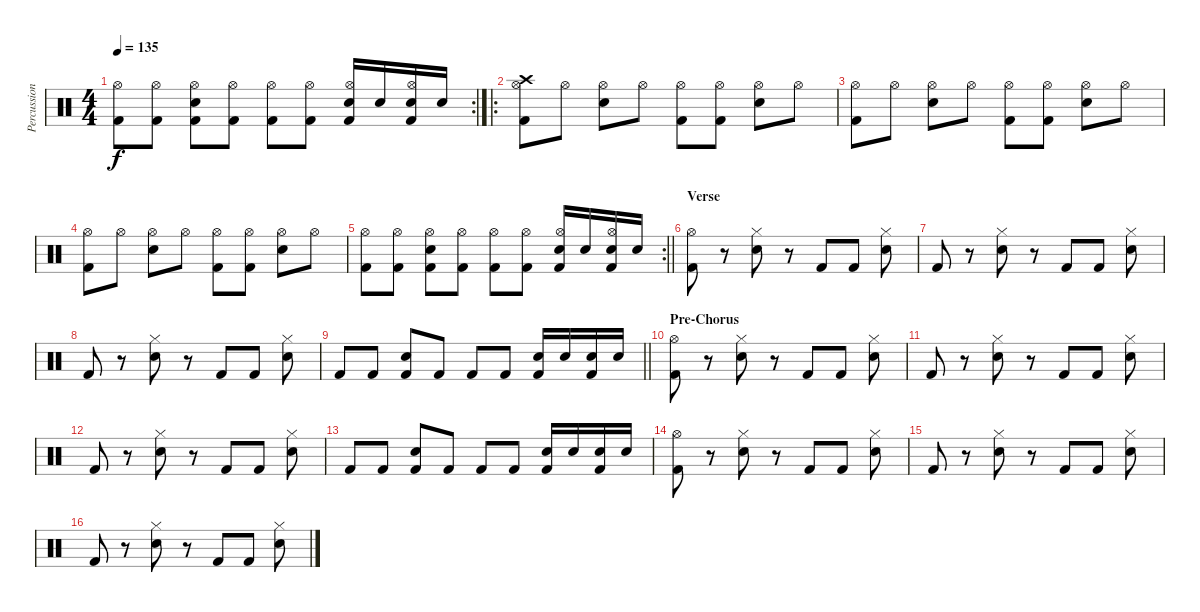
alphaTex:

\track ("Percussion" "Percussion") {instrument percussion}
\staff {score}
\articulation defaults
\rc 2
\ts (4 4)
\tempo 135
\clef neutral
\ks c
("Kick (hit) 2" "Hi-Hat (open)").8{dy f} ("Kick (hit) 2" "Hi-Hat (open)").8 ("Kick (hit) 2" "Electric Snare (hit)" "Hi-Hat (open)").8 ("Kick (hit) 2" "Hi-Hat (open)").8 ("Kick (hit) 2" "Hi-Hat (open)").8 ("Kick (hit) 2" "Hi-Hat (open)").8 ("Kick (hit) 2" "Electric Snare (hit)" "Hi-Hat (open)").16 "Electric Snare (hit)".16 ("Kick (hit) 2" "Electric Snare (hit)" "Hi-Hat (open)").16 "Electric Snare (hit)".16 |
\ro
("Crash high (hit)" "Hi-Hat (open)" "Kick (hit) 2").8 "Hi-Hat (open)".8 ("Hi-Hat (open)" "Electric Snare (hit)").8 "Hi-Hat (open)".8 ("Hi-Hat (open)" "Kick (hit) 2").8 ("Hi-Hat (open)" "Kick (hit) 2").8 ("Hi-Hat (open)" "Electric Snare (hit)").8 "Hi-Hat (open)".8 |
("Hi-Hat (open)" "Kick (hit) 2").8 "Hi-Hat (open)".8 ("Hi-Hat (open)" "Electric Snare (hit)").8 "Hi-Hat (open)".8 ("Hi-Hat (open)" "Kick (hit) 2").8 ("Hi-Hat (open)" "Kick (hit) 2").8 ("Hi-Hat (open)" "Electric Snare (hit)").8 "Hi-Hat (open)".8 |
("Hi-Hat (open)" "Kick (hit) 2").8 "Hi-Hat (open)".8 ("Hi-Hat (open)" "Electric Snare (hit)").8 "Hi-Hat (open)".8 ("Hi-Hat (open)" "Kick (hit) 2").8 ("Hi-Hat (open)" "Kick (hit) 2").8 ("Hi-Hat (open)" "Electric Snare (hit)").8 "Hi-Hat (open)".8 |
\rc 2
\barLineRight lightlight
("Kick (hit) 2" "Hi-Hat (open)").8 ("Kick (hit) 2" "Hi-Hat (open)").8 ("Kick (hit) 2" "Electric Snare (hit)" "Hi-Hat (open)").8 ("Kick (hit) 2" "Hi-Hat (open)").8 ("Kick (hit) 2" "Hi-Hat (open)").8 ("Kick (hit) 2" "Hi-Hat (open)").8 ("Kick (hit) 2" "Electric Snare (hit)" "Hi-Hat (open)").16 "Electric Snare (hit)".16 ("Kick (hit) 2" "Electric Snare (hit)" "Hi-Hat (open)").16 "Electric Snare (hit)".16 |
\section ("" "Verse")
("Hi-Hat (open)" "Kick (hit) 2").8 r.8 ("Electric Snare (hit)" "Hi-Hat (closed)").8 r.8 "Kick (hit) 2".8 "Kick (hit) 2".8 ("Electric Snare (hit)" "Hi-Hat (closed)").8 |
"Kick (hit) 2".8 r.8 ("Electric Snare (hit)" "Hi-Hat (closed)").8 r.8 "Kick (hit) 2".8 "Kick (hit) 2".8 ("Electric Snare (hit)" "Hi-Hat (closed)").8 |
"Kick (hit) 2".8 r.8 ("Electric Snare (hit)" "Hi-Hat (closed)").8 r.8 "Kick (hit) 2".8 "Kick (hit) 2".8 ("Electric Snare (hit)" "Hi-Hat (closed)").8 |
\barLineRight lightlight "Kick (hit) 2".8 "Kick (hit) 2".8
("Kick (hit) 2" "Electric Snare (hit)").8 "Kick (hit) 2".8 "Kick (hit) 2".8 "Kick (hit) 2".8 ("Kick (hit) 2" "Electric Snare (hit)").16 "Electric Snare (hit)".16 ("Kick (hit) 2" "Electric Snare (hit)").16 "Electric Snare (hit)".16 |
\section ("" "Pre-Chorus")
("Hi-Hat (open)" "Kick (hit) 2").8 r.8 ("Electric Snare (hit)" "Hi-Hat (closed)").8 r.8 "Kick (hit) 2".8 "Kick (hit) 2".8 ("Electric Snare (hit)" "Hi-Hat (closed)").8 |
"Kick (hit) 2".8 r.8 ("Electric Snare (hit)" "Hi-Hat (closed)").8 r.8 "Kick (hit) 2".8 "Kick (hit) 2".8 ("Electric Snare (hit)" "Hi-Hat (closed)").8 |
"Kick (hit) 2".8 r.8 ("Electric Snare (hit)" "Hi-Hat (closed)").8 r.8 "Kick (hit) 2".8 "Kick (hit) 2".8 ("Electric Snare (hit)" "Hi-Hat (closed)").8 |
"Kick (hit) 2".8 "Kick (hit) 2".8 ("Kick (hit) 2" "Electric Snare (hit)").8 "Kick (hit) 2".8 "Kick (hit) 2".8 "Kick (hit) 2".8 ("Kick (hit) 2" "Electric Snare (hit)").16 "Electric Snare (hit)".16 ("Kick (hit) 2" "Electric Snare (hit)").16 "Electric Snare (hit)".16 |
("Hi-Hat (open)" "Kick (hit) 2").8 r.8 ("Electric Snare (hit)" "Hi-Hat (closed)").8 r.8 "Kick (hit) 2".8 "Kick (hit) 2".8 ("Electric Snare (hit)" "Hi-Hat (closed)").8 |
"Kick (hit) 2".8 r.8 ("Electric Snare (hit)" "Hi-Hat (closed)").8 r.8 "Kick (hit) 2".8 "Kick (hit) 2".8 ("Electric Snare (hit)" "Hi-Hat (closed)").8 |
"Kick (hit) 2".8 r.8 ("Electric Snare (hit)" "Hi-Hat (closed)").8 r.8 "Kick (hit) 2".8 "Kick (hit) 2".8 ("Electric Snare (hit)" "Hi-Hat (closed)").8
